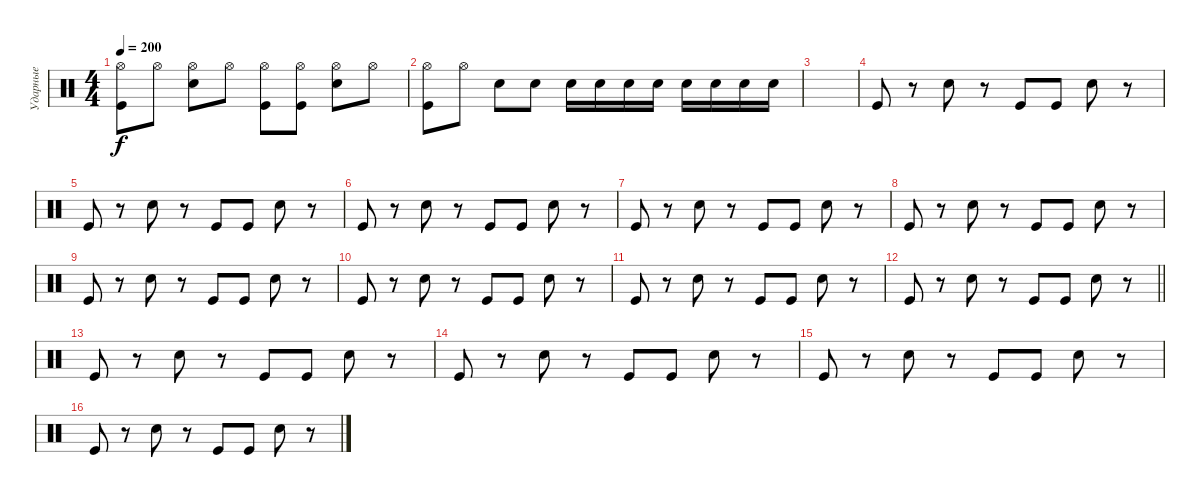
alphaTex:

\track ("Ударные" "Ударные") {instrument percussion}
\staff {score}
\articulation defaults
\ts (4 4)
\tempo 200
\clef neutral
\ks c
("Hi-Hat (open)" "Kick (hit)").8{dy f} "Hi-Hat (open)".8 ("Hi-Hat (open)" "Snare (hit) 2").8 "Hi-Hat (open)".8 ("Hi-Hat (open)" "Kick (hit)").8 ("Hi-Hat (open)" "Kick (hit)").8 ("Hi-Hat (open)" "Snare (hit) 2").8 "Hi-Hat (open)".8 |
("Hi-Hat (open)" "Kick (hit)").8 "Hi-Hat (open)".8 "Snare (hit) 2".8 "Snare (hit) 2".8 "Snare (hit) 2".16 "Snare (hit) 2".16 "Snare (hit) 2".16 "Snare (hit) 2".16 "Snare (hit) 2".16 "Snare (hit) 2".16 "Snare (hit) 2".16 "Snare (hit) 2".16 |
|
"Kick (hit)".8 r.8 "Snare (hit) 2".8 r.8 "Kick (hit)".8 "Kick (hit)".8 "Snare (hit) 2".8 r.8 |
"Kick (hit)".8 r.8 "Snare (hit) 2".8 r.8 "Kick (hit)".8 "Kick (hit)".8 "Snare (hit) 2".8 r.8 |
"Kick (hit)".8 r.8 "Snare (hit) 2".8 r.8 "Kick (hit)".8 "Kick (hit)".8 "Snare (hit) 2".8 r.8 |
"Kick (hit)".8 r.8 "Snare (hit) 2".8 r.8 "Kick (hit)".8 "Kick (hit)".8 "Snare (hit) 2".8 r.8 |
"Kick (hit)".8 r.8 "Snare (hit) 2".8 r.8 "Kick (hit)".8 "Kick (hit)".8 "Snare (hit) 2".8 r.8 |
"Kick (hit)".8 r.8 "Snare (hit) 2".8 r.8 "Kick (hit)".8 "Kick (hit)".8 "Snare (hit) 2".8 r.8 |
"Kick (hit)".8 r.8 "Snare (hit) 2".8 r.8 "Kick (hit)".8 "Kick (hit)".8 "Snare (hit) 2".8 r.8 |
"Kick (hit)".8 r.8 "Snare (hit) 2".8 r.8 "Kick (hit)".8 "Kick (hit)".8 "Snare (hit) 2".8 r.8 |
\barLineRight lightlight "Kick (hit)".8
r.8 "Snare (hit) 2".8 r.8 "Kick (hit)".8 "Kick (hit)".8 "Snare (hit) 2".8 r.8 |
\section ("" "")
"Kick (hit)".8 r.8 "Snare (hit) 2".8 r.8 "Kick (hit)".8 "Kick (hit)".8 "Snare (hit) 2".8 r.8 |
"Kick (hit)".8 r.8 "Snare (hit) 2".8 r.8 "Kick (hit)".8 "Kick (hit)".8 "Snare (hit) 2".8 r.8 |
"Kick (hit)".8 r.8 "Snare (hit) 2".8 r.8 "Kick (hit)".8 "Kick (hit)".8 "Snare (hit) 2".8 r.8 |
"Kick (hit)".8 r.8 "Snare (hit) 2".8 r.8 "Kick (hit)".8 "Kick (hit)".8 "Snare (hit) 2".8 r.8
